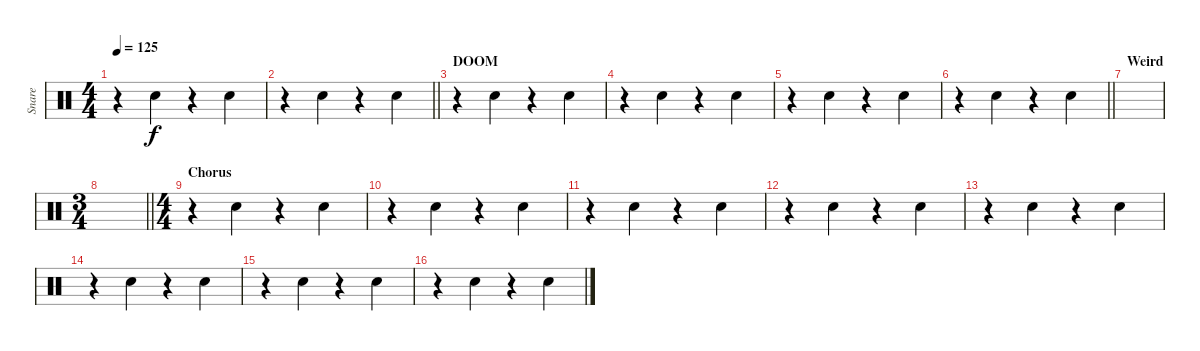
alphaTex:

\track ("Snare" "Snare") {instrument percussion}
\staff {score}
\articulation defaults
\ts (4 4)
\tempo 125
\clef neutral
\ks c
r.4{dy f} "Electric Snare (hit)".4 r.4 "Electric Snare (hit)".4 |
\barLineRight lightlight
r.4 "Electric Snare (hit)".4 r.4 "Electric Snare (hit)".4 |
\section ("" "DOOM")
r.4 "Electric Snare (hit)".4 r.4 "Electric Snare (hit)".4 |
r.4 "Electric Snare (hit)".4 r.4 "Electric Snare (hit)".4 |
r.4 "Electric Snare (hit)".4 r.4 "Electric Snare (hit)".4 |
\barLineRight lightlight
r.4 "Electric Snare (hit)".4 r.4 "Electric Snare (hit)".4 |
\section ("" "Weird")
|
\ts (3 4)
\barLineRight lightlight
|
\ts (4 4)
\section ("" "Chorus")
r.4 "Electric Snare (hit)".4 r.4 "Electric Snare (hit)".4 |
r.4 "Electric Snare (hit)".4 r.4 "Electric Snare (hit)".4 |
r.4 "Electric Snare (hit)".4 r.4 "Electric Snare (hit)".4 |
r.4 "Electric Snare (hit)".4 r.4 "Electric Snare (hit)".4 |
r.4 "Electric Snare (hit)".4 r.4 "Electric Snare (hit)".4 |
r.4 "Electric Snare (hit)".4 r.4 "Electric Snare (hit)".4 |
r.4 "Electric Snare (hit)".4 r.4 "Electric Snare (hit)".4 |
r.4 "Electric Snare (hit)".4 r.4 "Electric Snare (hit)".4
